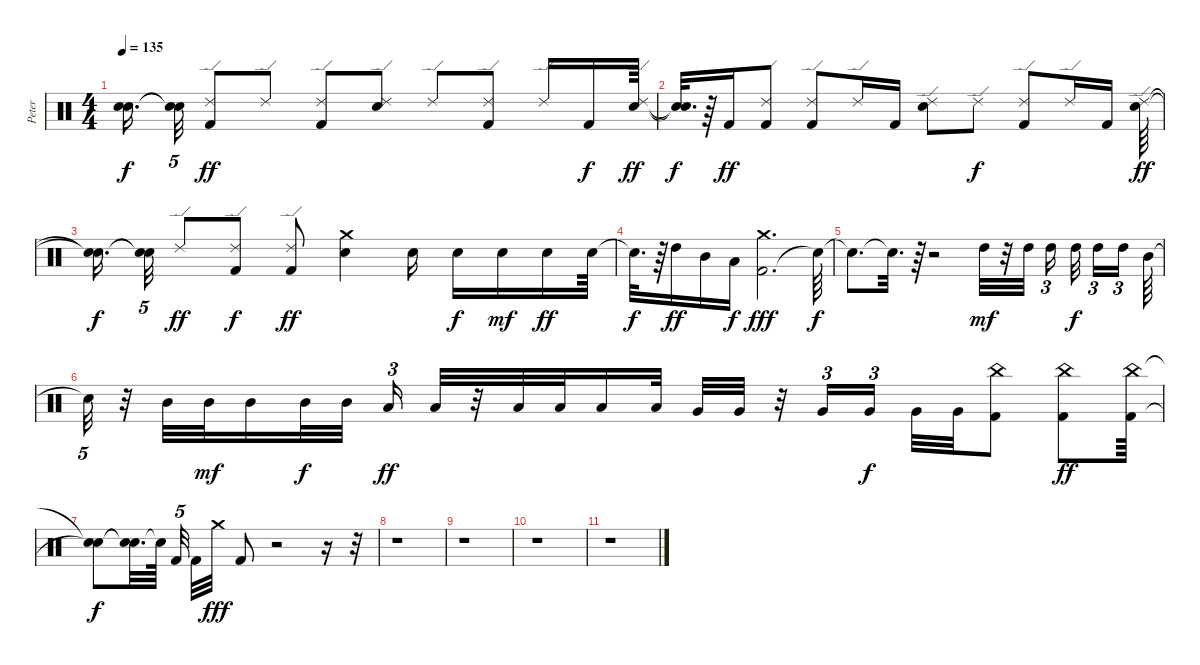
\track ("Peter" "Peter") {instrument percussion}
\staff {score}
\articulation defaults
\ts (4 4)
\tempo 135
\clef neutral
\ks c
("Snare (hit)"{t} "Snare (hit)"{t}).16{d dy f} ("Snare (hit)"{t} "Snare (hit)"{t}).32{tu (5 4)} ("Kick (hit) 2" "Ride (edge) 2").8{dy ff} "Ride (edge) 2".8 ("Ride (edge) 2" "Kick (hit) 2").8 ("Electric Snare (hit)" "Ride (edge) 2").8 "Ride (edge) 2".8 ("Ride (edge) 2" "Kick (hit) 2").8 "Ride (edge) 2".16 "Kick (hit) 2".16{dy f} ("Electric Snare (hit)" "Ride (edge) 2").64{dy ff} |
("Snare (hit)"{t} "Snare (hit)"{t}).32{d dy f} r.64 "Kick (hit) 2".16{dy ff} ("Ride (edge) 2" "Kick (hit) 2").8 ("Kick (hit) 2" "Ride (edge) 2").8 "Ride (edge) 2".16 "Kick (hit) 2".16 ("Ride (edge) 2" "Electric Snare (hit)").8 "Ride (edge) 2".8{dy f} ("Ride (edge) 2" "Kick (hit) 2").8 "Ride (edge) 2".16 "Kick (hit) 2".16 ("Electric Snare (hit)" "Ride (edge) 2").64{dy ff} |
("Snare (hit)"{t} "Snare (hit)"{t}).16{d dy f} ("Snare (hit)"{t} "Snare (hit)"{t}).32{tu (5 4)} "Ride (edge) 2".8{dy ff} ("Ride (edge) 2" "Kick (hit) 2").8{dy f} ("Kick (hit) 2" "Ride (edge) 2").8{dy ff} ("Electric Snare (hit)" "Crash medium (hit)").4 "Electric Snare (hit)".16 "Electric Snare (hit)".16{dy f} "Electric Snare (hit)".16{dy mf} "Electric Snare (hit)".16{dy ff} "Electric Snare (hit)".64 |
"Snare (hit)"{t}.32{d dy f} r.64 "High Tom (hit)".16{dy ff} "Mid Tom (hit)".16 "Low Tom (hit)".16{dy f} ("Kick (hit) 2" "Crash medium (hit)").2{d dy fff} "Snare (hit)"{t}.64{dy f} |
"Snare (hit)"{t}.8{d} "Snare (hit)"{t}.32{d} r.64 r.2 "High Tom (hit)".32{dy mf} r.32 "High Tom (hit)".32 "High Tom (hit)".16{tu (3 2)} "High Tom (hit)".32{dy f} "High Tom (hit)".16{tu (3 2)} "High Tom (hit)".16{tu (3 2)} "Mid Tom (hit)".64 |
"Snare (hit)"{t}.32{tu (5 4)} r.32 "Mid Tom (hit)".32 "Mid Tom (hit)".32{dy mf} "Mid Tom (hit)".16 "Mid Tom (hit)".32{dy f} "Mid Tom (hit)".32 "Low Tom (hit)".16{tu (3 2) dy ff} "Low Tom (hit)".32 r.32 "Low Tom (hit)".32 "Low Tom (hit)".32 "Low Tom (hit)".16 "Low Tom (hit)".32 "Very Low Tom (hit)".32 "Very Low Tom (hit)".32 r.32 "Very Low Tom (hit)".16{tu (3 2)} "Very Low Tom (hit)".16{tu (3 2) dy f} "Very Low Tom (hit)".32 "Very Low Tom (hit)".32 ("China (hit)" "Kick (hit) 2").8 ("Kick (hit) 2" "China (hit)").8{dy ff} ("Kick (hit) 2" "China (hit)").64 |
("Snare (hit)"{t} "Snare (hit)"{t}).8{dy f} ("Snare (hit)"{t} "Snare (hit)"{t}).32{d} "Snare (hit)"{t}.64 "Kick (hit) 2".32{tu (5 4)} "Kick (hit) 2".32 "Crash medium (hit)".32{dy fff} "Kick (hit) 2".8 r.2 r.16 r.32 |
r.1 |
r.1 |
r.1 |
r.1
